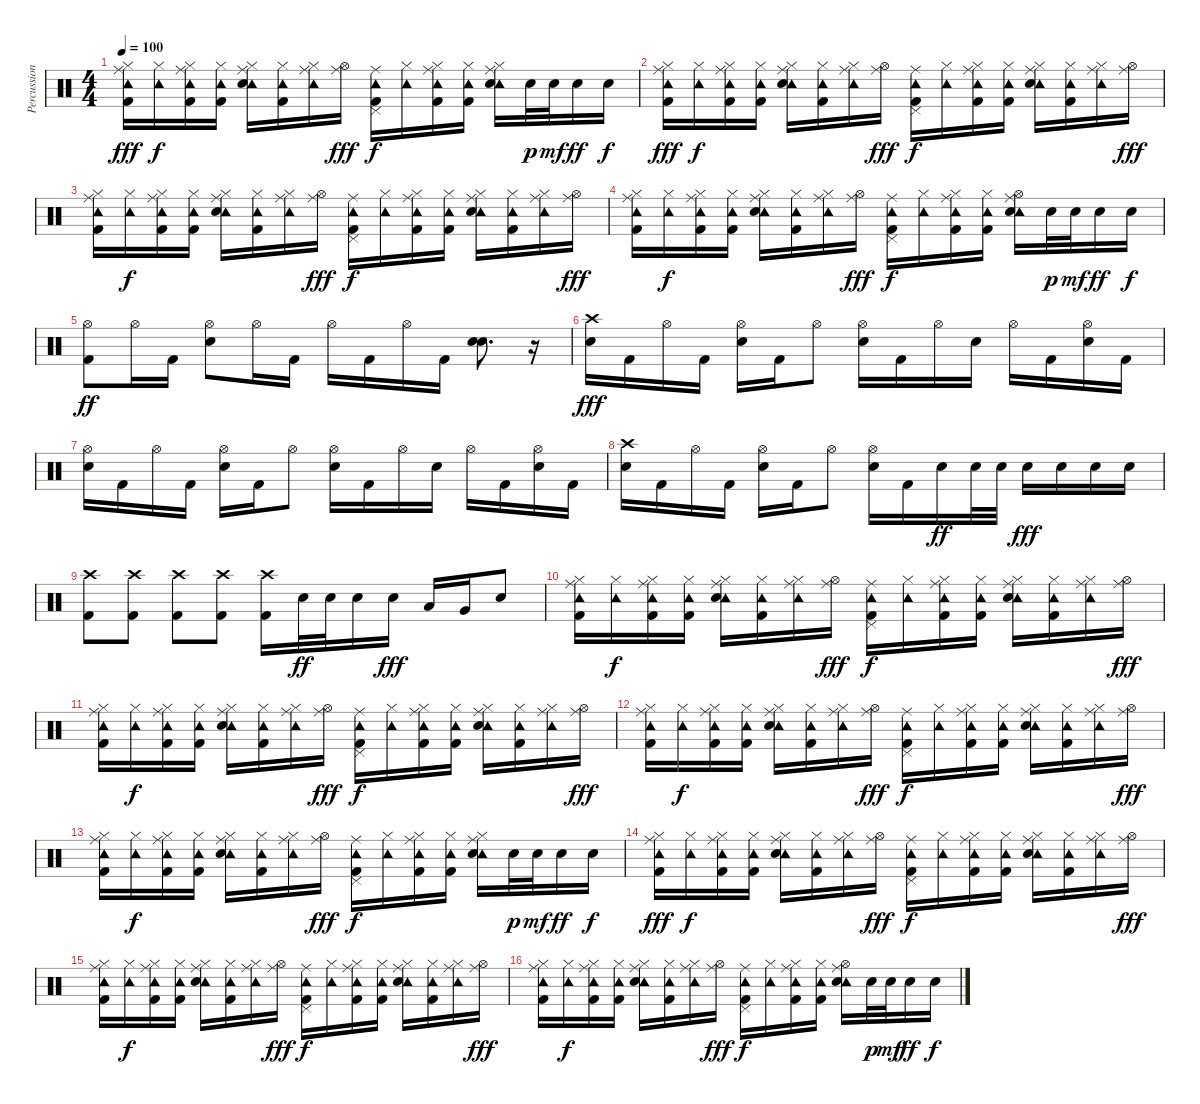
\track ("Percussion" "Percussion") {instrument percussion}
\staff {score}
\articulation defaults
\ts (4 4)
\tempo 100
\clef neutral
\ks c
("Tambourine (hit)" "Ride (middle)" "Hi-Hat (closed)" "Kick (hit) 2").16{dy fff} ("Tambourine (hit)" "Hi-Hat (closed)").16{dy f} ("Tambourine (hit)" "Ride (middle)" "Hi-Hat (closed)" "Kick (hit) 2").16 ("Tambourine (hit)" "Hi-Hat (closed)" "Kick (hit) 2").16 ("Tambourine (hit)" "Ride (middle)" "Hi-Hat (closed)" "Electric Snare (hit)").16 ("Tambourine (hit)" "Hi-Hat (closed)" "Kick (hit) 2").16 ("Tambourine (hit)" "Ride (middle)" "Hi-Hat (closed)").16 ("Ride (middle)" "Hi-Hat (open)").16{dy fff} ("Tambourine (hit)" "Ride (middle)" "Pedal Hi-Hat (hit)" "Kick (hit) 2").16{dy f} ("Tambourine (hit)" "Hi-Hat (closed)").16 ("Tambourine (hit)" "Ride (middle)" "Hi-Hat (closed)" "Kick (hit) 2").16 ("Tambourine (hit)" "Hi-Hat (closed)" "Kick (hit) 2").16 ("Tambourine (hit)" "Ride (middle)" "Hi-Hat (closed)" "Electric Snare (hit)").16 "Electric Snare (hit)".32{dy p} "Electric Snare (hit)".32{dy mf} "Electric Snare (hit)".16{dy ff} "Electric Snare (hit)".16{dy f} |
("Tambourine (hit)" "Ride (middle)" "Hi-Hat (closed)" "Kick (hit) 2").16{dy fff} ("Tambourine (hit)" "Hi-Hat (closed)").16{dy f} ("Tambourine (hit)" "Ride (middle)" "Hi-Hat (closed)" "Kick (hit) 2").16 ("Tambourine (hit)" "Hi-Hat (closed)" "Kick (hit) 2").16 ("Tambourine (hit)" "Ride (middle)" "Hi-Hat (closed)" "Electric Snare (hit)").16 ("Tambourine (hit)" "Hi-Hat (closed)" "Kick (hit) 2").16 ("Tambourine (hit)" "Ride (middle)" "Hi-Hat (closed)").16 ("Ride (middle)" "Hi-Hat (open)").16{dy fff} ("Tambourine (hit)" "Ride (middle)" "Pedal Hi-Hat (hit)" "Kick (hit) 2").16{dy f} ("Tambourine (hit)" "Hi-Hat (closed)").16 ("Tambourine (hit)" "Ride (middle)" "Hi-Hat (closed)" "Kick (hit) 2").16 ("Tambourine (hit)" "Hi-Hat (closed)" "Kick (hit) 2").16 ("Tambourine (hit)" "Ride (middle)" "Hi-Hat (closed)" "Electric Snare (hit)").16 ("Tambourine (hit)" "Hi-Hat (closed)" "Kick (hit) 2").16 ("Tambourine (hit)" "Ride (middle)" "Hi-Hat (closed)").16 ("Ride (middle)" "Hi-Hat (open)").16{dy fff} |
("Tambourine (hit)" "Ride (middle)" "Hi-Hat (closed)" "Kick (hit) 2").16 ("Tambourine (hit)" "Hi-Hat (closed)").16{dy f} ("Tambourine (hit)" "Ride (middle)" "Hi-Hat (closed)" "Kick (hit) 2").16 ("Tambourine (hit)" "Hi-Hat (closed)" "Kick (hit) 2").16 ("Tambourine (hit)" "Ride (middle)" "Hi-Hat (closed)" "Electric Snare (hit)").16 ("Tambourine (hit)" "Hi-Hat (closed)" "Kick (hit) 2").16 ("Tambourine (hit)" "Ride (middle)" "Hi-Hat (closed)").16 ("Ride (middle)" "Hi-Hat (open)").16{dy fff} ("Tambourine (hit)" "Ride (middle)" "Pedal Hi-Hat (hit)" "Kick (hit) 2").16{dy f} ("Tambourine (hit)" "Hi-Hat (closed)").16 ("Tambourine (hit)" "Ride (middle)" "Hi-Hat (closed)" "Kick (hit) 2").16 ("Tambourine (hit)" "Hi-Hat (closed)" "Kick (hit) 2").16 ("Tambourine (hit)" "Ride (middle)" "Hi-Hat (closed)" "Electric Snare (hit)").16 ("Tambourine (hit)" "Hi-Hat (closed)" "Kick (hit) 2").16 ("Tambourine (hit)" "Ride (middle)" "Hi-Hat (closed)").16 ("Ride (middle)" "Hi-Hat (open)").16{dy fff} |
("Tambourine (hit)" "Ride (middle)" "Hi-Hat (closed)" "Kick (hit) 2").16 ("Tambourine (hit)" "Hi-Hat (closed)").16{dy f} ("Tambourine (hit)" "Ride (middle)" "Hi-Hat (closed)" "Kick (hit) 2").16 ("Tambourine (hit)" "Hi-Hat (closed)" "Kick (hit) 2").16 ("Tambourine (hit)" "Ride (middle)" "Hi-Hat (closed)" "Electric Snare (hit)").16 ("Tambourine (hit)" "Hi-Hat (closed)" "Kick (hit) 2").16 ("Tambourine (hit)" "Ride (middle)" "Hi-Hat (closed)").16 ("Ride (middle)" "Hi-Hat (open)").16{dy fff} ("Tambourine (hit)" "Ride (middle)" "Pedal Hi-Hat (hit)" "Kick (hit) 2").16{dy f} ("Tambourine (hit)" "Hi-Hat (closed)").16 ("Tambourine (hit)" "Ride (middle)" "Hi-Hat (closed)" "Kick (hit) 2").16 ("Tambourine (hit)" "Hi-Hat (closed)" "Kick (hit) 2").16 ("Tambourine (hit)" "Ride (middle)" "Hi-Hat (open)" "Electric Snare (hit)").16 "Electric Snare (hit)".32{dy p} "Electric Snare (hit)".32{dy mf} "Electric Snare (hit)".16{dy ff} "Electric Snare (hit)".16{dy f} |
("Hi-Hat (open)" "Kick (hit) 2").8{dy ff} "Hi-Hat (open)".16 "Kick (hit) 2".16 ("Hi-Hat (open)" "Electric Snare (hit)").8 "Hi-Hat (open)".16 "Kick (hit) 2".16 "Hi-Hat (open)".16 "Kick (hit) 2".16 "Hi-Hat (open)".16 "Kick (hit) 2".16 ("Electric Snare (hit)" "Electric Snare (hit)").8{d} r.16 |
("Crash high (hit)" "Electric Snare (hit)").16{dy fff} "Kick (hit) 2".16 "Hi-Hat (open)".16 "Kick (hit) 2".16 ("Hi-Hat (open)" "Electric Snare (hit)").16 "Kick (hit) 2".16 "Hi-Hat (open)".8 ("Hi-Hat (open)" "Electric Snare (hit)").16 "Kick (hit) 2".16 "Hi-Hat (open)".16 "Electric Snare (hit)".16 "Hi-Hat (open)".16 "Kick (hit) 2".16 ("Hi-Hat (open)" "Electric Snare (hit)").16 "Kick (hit) 2".16 |
("Hi-Hat (open)" "Electric Snare (hit)").16 "Kick (hit) 2".16 "Hi-Hat (open)".16 "Kick (hit) 2".16 ("Hi-Hat (open)" "Electric Snare (hit)").16 "Kick (hit) 2".16 "Hi-Hat (open)".8 ("Hi-Hat (open)" "Electric Snare (hit)").16 "Kick (hit) 2".16 "Hi-Hat (open)".16 "Electric Snare (hit)".16 "Hi-Hat (open)".16 "Kick (hit) 2".16 ("Hi-Hat (open)" "Electric Snare (hit)").16 "Kick (hit) 2".16 |
("Crash high (hit)" "Electric Snare (hit)").16 "Kick (hit) 2".16 "Hi-Hat (open)".16 "Kick (hit) 2".16 ("Hi-Hat (open)" "Electric Snare (hit)").16 "Kick (hit) 2".16 "Hi-Hat (open)".8 ("Hi-Hat (open)" "Electric Snare (hit)").16 "Kick (hit) 2".16 "Electric Snare (hit)".16{dy ff} "Electric Snare (hit)".32 "Electric Snare (hit)".32 "Electric Snare (hit)".16{dy fff} "Electric Snare (hit)".16 "Electric Snare (hit)".16 "Electric Snare (hit)".16 |
("Crash high (hit)" "Kick (hit) 2").8 ("Crash high (hit)" "Kick (hit) 2").8 ("Crash high (hit)" "Kick (hit) 2").8 ("Crash high (hit)" "Kick (hit) 2").8 ("Crash high (hit)" "Kick (hit) 2").16 "Electric Snare (hit)".32{dy ff} "Electric Snare (hit)".32 "Electric Snare (hit)".16 "Electric Snare (hit)".16{dy fff} "Low Tom (hit)".16 "Very Low Tom (hit)".16 "Electric Snare (hit)".8 |
("Tambourine (hit)" "Ride (middle)" "Hi-Hat (closed)" "Kick (hit) 2").16 ("Tambourine (hit)" "Hi-Hat (closed)").16{dy f} ("Tambourine (hit)" "Ride (middle)" "Hi-Hat (closed)" "Kick (hit) 2").16 ("Tambourine (hit)" "Hi-Hat (closed)" "Kick (hit) 2").16 ("Tambourine (hit)" "Ride (middle)" "Hi-Hat (closed)" "Electric Snare (hit)").16 ("Tambourine (hit)" "Hi-Hat (closed)" "Kick (hit) 2").16 ("Tambourine (hit)" "Ride (middle)" "Hi-Hat (closed)").16 ("Ride (middle)" "Hi-Hat (open)").16{dy fff} ("Tambourine (hit)" "Ride (middle)" "Pedal Hi-Hat (hit)" "Kick (hit) 2").16{dy f} ("Tambourine (hit)" "Hi-Hat (closed)").16 ("Tambourine (hit)" "Ride (middle)" "Hi-Hat (closed)" "Kick (hit) 2").16 ("Tambourine (hit)" "Hi-Hat (closed)" "Kick (hit) 2").16 ("Tambourine (hit)" "Ride (middle)" "Hi-Hat (closed)" "Electric Snare (hit)").16 ("Tambourine (hit)" "Hi-Hat (closed)" "Kick (hit) 2").16 ("Tambourine (hit)" "Ride (middle)" "Hi-Hat (closed)").16 ("Ride (middle)" "Hi-Hat (open)").16{dy fff} |
("Tambourine (hit)" "Ride (middle)" "Hi-Hat (closed)" "Kick (hit) 2").16 ("Tambourine (hit)" "Hi-Hat (closed)").16{dy f} ("Tambourine (hit)" "Ride (middle)" "Hi-Hat (closed)" "Kick (hit) 2").16 ("Tambourine (hit)" "Hi-Hat (closed)" "Kick (hit) 2").16 ("Tambourine (hit)" "Ride (middle)" "Hi-Hat (closed)" "Electric Snare (hit)").16 ("Tambourine (hit)" "Hi-Hat (closed)" "Kick (hit) 2").16 ("Tambourine (hit)" "Ride (middle)" "Hi-Hat (closed)").16 ("Ride (middle)" "Hi-Hat (open)").16{dy fff} ("Tambourine (hit)" "Ride (middle)" "Pedal Hi-Hat (hit)" "Kick (hit) 2").16{dy f} ("Tambourine (hit)" "Hi-Hat (closed)").16 ("Tambourine (hit)" "Ride (middle)" "Hi-Hat (closed)" "Kick (hit) 2").16 ("Tambourine (hit)" "Hi-Hat (closed)" "Kick (hit) 2").16 ("Tambourine (hit)" "Ride (middle)" "Hi-Hat (closed)" "Electric Snare (hit)").16 ("Tambourine (hit)" "Hi-Hat (closed)" "Kick (hit) 2").16 ("Tambourine (hit)" "Ride (middle)" "Hi-Hat (closed)").16 ("Ride (middle)" "Hi-Hat (open)").16{dy fff} |
("Tambourine (hit)" "Ride (middle)" "Hi-Hat (closed)" "Kick (hit) 2").16 ("Tambourine (hit)" "Hi-Hat (closed)").16{dy f} ("Tambourine (hit)" "Ride (middle)" "Hi-Hat (closed)" "Kick (hit) 2").16 ("Tambourine (hit)" "Hi-Hat (closed)" "Kick (hit) 2").16 ("Tambourine (hit)" "Ride (middle)" "Hi-Hat (closed)" "Electric Snare (hit)").16 ("Tambourine (hit)" "Hi-Hat (closed)" "Kick (hit) 2").16 ("Tambourine (hit)" "Ride (middle)" "Hi-Hat (closed)").16 ("Ride (middle)" "Hi-Hat (open)").16{dy fff} ("Tambourine (hit)" "Ride (middle)" "Pedal Hi-Hat (hit)" "Kick (hit) 2").16{dy f} ("Tambourine (hit)" "Hi-Hat (closed)").16 ("Tambourine (hit)" "Ride (middle)" "Hi-Hat (closed)" "Kick (hit) 2").16 ("Tambourine (hit)" "Hi-Hat (closed)" "Kick (hit) 2").16 ("Tambourine (hit)" "Ride (middle)" "Hi-Hat (closed)" "Electric Snare (hit)").16 ("Tambourine (hit)" "Hi-Hat (closed)" "Kick (hit) 2").16 ("Tambourine (hit)" "Ride (middle)" "Hi-Hat (closed)").16 ("Ride (middle)" "Hi-Hat (open)").16{dy fff} |
("Tambourine (hit)" "Ride (middle)" "Hi-Hat (closed)" "Kick (hit) 2").16 ("Tambourine (hit)" "Hi-Hat (closed)").16{dy f} ("Tambourine (hit)" "Ride (middle)" "Hi-Hat (closed)" "Kick (hit) 2").16 ("Tambourine (hit)" "Hi-Hat (closed)" "Kick (hit) 2").16 ("Tambourine (hit)" "Ride (middle)" "Hi-Hat (closed)" "Electric Snare (hit)").16 ("Tambourine (hit)" "Hi-Hat (closed)" "Kick (hit) 2").16 ("Tambourine (hit)" "Ride (middle)" "Hi-Hat (closed)").16 ("Ride (middle)" "Hi-Hat (open)").16{dy fff} ("Tambourine (hit)" "Ride (middle)" "Pedal Hi-Hat (hit)" "Kick (hit) 2").16{dy f} ("Tambourine (hit)" "Hi-Hat (closed)").16 ("Tambourine (hit)" "Ride (middle)" "Hi-Hat (closed)" "Kick (hit) 2").16 ("Tambourine (hit)" "Hi-Hat (closed)" "Kick (hit) 2").16 ("Tambourine (hit)" "Ride (middle)" "Hi-Hat (closed)" "Electric Snare (hit)").16 "Electric Snare (hit)".32{dy p} "Electric Snare (hit)".32{dy mf} "Electric Snare (hit)".16{dy ff} "Electric Snare (hit)".16{dy f} |
("Tambourine (hit)" "Ride (middle)" "Hi-Hat (closed)" "Kick (hit) 2").16{dy fff} ("Tambourine (hit)" "Hi-Hat (closed)").16{dy f} ("Tambourine (hit)" "Ride (middle)" "Hi-Hat (closed)" "Kick (hit) 2").16 ("Tambourine (hit)" "Hi-Hat (closed)" "Kick (hit) 2").16 ("Tambourine (hit)" "Ride (middle)" "Hi-Hat (closed)" "Electric Snare (hit)").16 ("Tambourine (hit)" "Hi-Hat (closed)" "Kick (hit) 2").16 ("Tambourine (hit)" "Ride (middle)" "Hi-Hat (closed)").16 ("Ride (middle)" "Hi-Hat (open)").16{dy fff} ("Tambourine (hit)" "Ride (middle)" "Pedal Hi-Hat (hit)" "Kick (hit) 2").16{dy f} ("Tambourine (hit)" "Hi-Hat (closed)").16 ("Tambourine (hit)" "Ride (middle)" "Hi-Hat (closed)" "Kick (hit) 2").16 ("Tambourine (hit)" "Hi-Hat (closed)" "Kick (hit) 2").16 ("Tambourine (hit)" "Ride (middle)" "Hi-Hat (closed)" "Electric Snare (hit)").16 ("Tambourine (hit)" "Hi-Hat (closed)" "Kick (hit) 2").16 ("Tambourine (hit)" "Ride (middle)" "Hi-Hat (closed)").16 ("Ride (middle)" "Hi-Hat (open)").16{dy fff} |
("Tambourine (hit)" "Ride (middle)" "Hi-Hat (closed)" "Kick (hit) 2").16 ("Tambourine (hit)" "Hi-Hat (closed)").16{dy f} ("Tambourine (hit)" "Ride (middle)" "Hi-Hat (closed)" "Kick (hit) 2").16 ("Tambourine (hit)" "Hi-Hat (closed)" "Kick (hit) 2").16 ("Tambourine (hit)" "Ride (middle)" "Hi-Hat (closed)" "Electric Snare (hit)").16 ("Tambourine (hit)" "Hi-Hat (closed)" "Kick (hit) 2").16 ("Tambourine (hit)" "Ride (middle)" "Hi-Hat (closed)").16 ("Ride (middle)" "Hi-Hat (open)").16{dy fff} ("Tambourine (hit)" "Ride (middle)" "Pedal Hi-Hat (hit)" "Kick (hit) 2").16{dy f} ("Tambourine (hit)" "Hi-Hat (closed)").16 ("Tambourine (hit)" "Ride (middle)" "Hi-Hat (closed)" "Kick (hit) 2").16 ("Tambourine (hit)" "Hi-Hat (closed)" "Kick (hit) 2").16 ("Tambourine (hit)" "Ride (middle)" "Hi-Hat (closed)" "Electric Snare (hit)").16 ("Tambourine (hit)" "Hi-Hat (closed)" "Kick (hit) 2").16 ("Tambourine (hit)" "Ride (middle)" "Hi-Hat (closed)").16 ("Ride (middle)" "Hi-Hat (open)").16{dy fff} |
("Tambourine (hit)" "Ride (middle)" "Hi-Hat (closed)" "Kick (hit) 2").16 ("Tambourine (hit)" "Hi-Hat (closed)").16{dy f} ("Tambourine (hit)" "Ride (middle)" "Hi-Hat (closed)" "Kick (hit) 2").16 ("Tambourine (hit)" "Hi-Hat (closed)" "Kick (hit) 2").16 ("Tambourine (hit)" "Ride (middle)" "Hi-Hat (closed)" "Electric Snare (hit)").16 ("Tambourine (hit)" "Hi-Hat (closed)" "Kick (hit) 2").16 ("Tambourine (hit)" "Ride (middle)" "Hi-Hat (closed)").16 ("Ride (middle)" "Hi-Hat (open)").16{dy fff} ("Tambourine (hit)" "Ride (middle)" "Pedal Hi-Hat (hit)" "Kick (hit) 2").16{dy f} ("Tambourine (hit)" "Hi-Hat (closed)").16 ("Tambourine (hit)" "Ride (middle)" "Hi-Hat (closed)" "Kick (hit) 2").16 ("Tambourine (hit)" "Hi-Hat (closed)" "Kick (hit) 2").16 ("Tambourine (hit)" "Ride (middle)" "Hi-Hat (open)" "Electric Snare (hit)").16 "Electric Snare (hit)".32{dy p} "Electric Snare (hit)".32{dy mf} "Electric Snare (hit)".16{dy ff} "Electric Snare (hit)".16{dy f}
